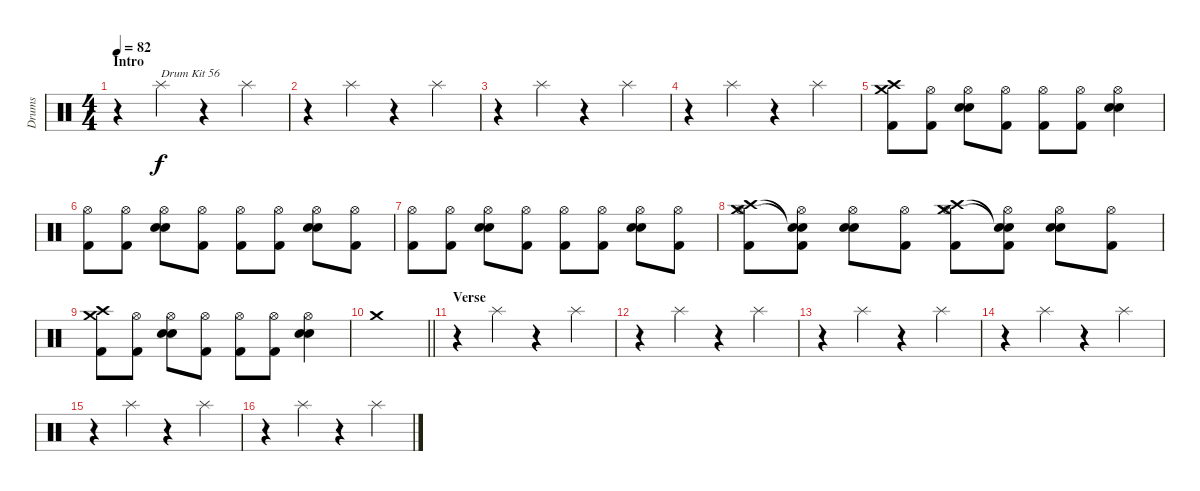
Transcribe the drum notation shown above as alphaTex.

\track ("Drums" "Drums") {instrument percussion}
\staff {score}
\articulation defaults
\ts (4 4)
\section ("" "Intro")
\tempo 82
\clef neutral
\ks c
r.4{dy f} "Splash (hit)".4{txt "Drum Kit 56"} r.4 "Splash (hit)".4 |
r.4 "Splash (hit)".4 r.4 "Splash (hit)".4 |
r.4 "Splash (hit)".4 r.4 "Splash (hit)".4 |
r.4 "Splash (hit)".4 r.4 "Splash (hit)".4 |
("Crash medium (hit)" "Crash high (hit)" "Kick (hit) 2").8 ("Hi-Hat (open)" "Kick (hit) 2").8 ("Hi-Hat (open)" "Snare (hit) 2" "Electric Snare (hit)").8 ("Hi-Hat (open)" "Kick (hit) 2").8 ("Hi-Hat (open)" "Kick (hit) 2").8 ("Hi-Hat (open)" "Kick (hit) 2").8 ("Hi-Hat (open)" "Snare (hit) 2" "Electric Snare (hit)").4 |
("Hi-Hat (open)" "Kick (hit) 2").8 ("Hi-Hat (open)" "Kick (hit) 2").8 ("Hi-Hat (open)" "Snare (hit) 2" "Electric Snare (hit)").8 ("Hi-Hat (open)" "Kick (hit) 2").8 ("Hi-Hat (open)" "Kick (hit) 2").8 ("Hi-Hat (open)" "Kick (hit) 2").8 ("Hi-Hat (open)" "Snare (hit) 2" "Electric Snare (hit)").8 ("Hi-Hat (open)" "Kick (hit) 2").8 |
("Hi-Hat (open)" "Kick (hit) 2").8 ("Hi-Hat (open)" "Kick (hit) 2").8 ("Hi-Hat (open)" "Snare (hit) 2" "Electric Snare (hit)").8 ("Hi-Hat (open)" "Kick (hit) 2").8 ("Hi-Hat (open)" "Kick (hit) 2").8 ("Hi-Hat (open)" "Kick (hit) 2").8 ("Hi-Hat (open)" "Snare (hit) 2" "Electric Snare (hit)").8 ("Hi-Hat (open)" "Kick (hit) 2").8 |
("Hi-Hat (open)" "Crash medium (hit)" "Crash high (hit)" "Kick (hit) 2").8 ("Hi-Hat (open)" "Snare (hit)"{t} "Snare (hit)"{t} "Kick (hit) 2").8 ("Hi-Hat (open)" "Snare (hit) 2" "Electric Snare (hit)").8 ("Hi-Hat (open)" "Kick (hit) 2").8 ("Hi-Hat (open)" "Crash medium (hit)" "Crash high (hit)" "Kick (hit) 2").8 ("Hi-Hat (open)" "Snare (hit)"{t} "Snare (hit)"{t} "Kick (hit) 2").8 ("Hi-Hat (open)" "Snare (hit) 2" "Electric Snare (hit)").8 ("Hi-Hat (open)" "Kick (hit) 2").8 |
("Crash medium (hit)" "Crash high (hit)" "Kick (hit) 2").8 ("Hi-Hat (open)" "Kick (hit) 2").8 ("Hi-Hat (open)" "Snare (hit) 2" "Electric Snare (hit)").8 ("Hi-Hat (open)" "Kick (hit) 2").8 ("Hi-Hat (open)" "Kick (hit) 2").8 ("Hi-Hat (open)" "Kick (hit) 2").8 ("Hi-Hat (open)" "Snare (hit) 2" "Electric Snare (hit)").4 |
\barLineRight lightlight "Crash medium (hit)".1
|
\section ("" "Verse")
r.4 "Splash (hit)".4 r.4 "Splash (hit)".4 |
r.4 "Splash (hit)".4 r.4 "Splash (hit)".4 |
r.4 "Splash (hit)".4 r.4 "Splash (hit)".4 |
r.4 "Splash (hit)".4 r.4 "Splash (hit)".4 |
r.4 "Splash (hit)".4 r.4 "Splash (hit)".4 |
r.4 "Splash (hit)".4 r.4 "Splash (hit)".4
